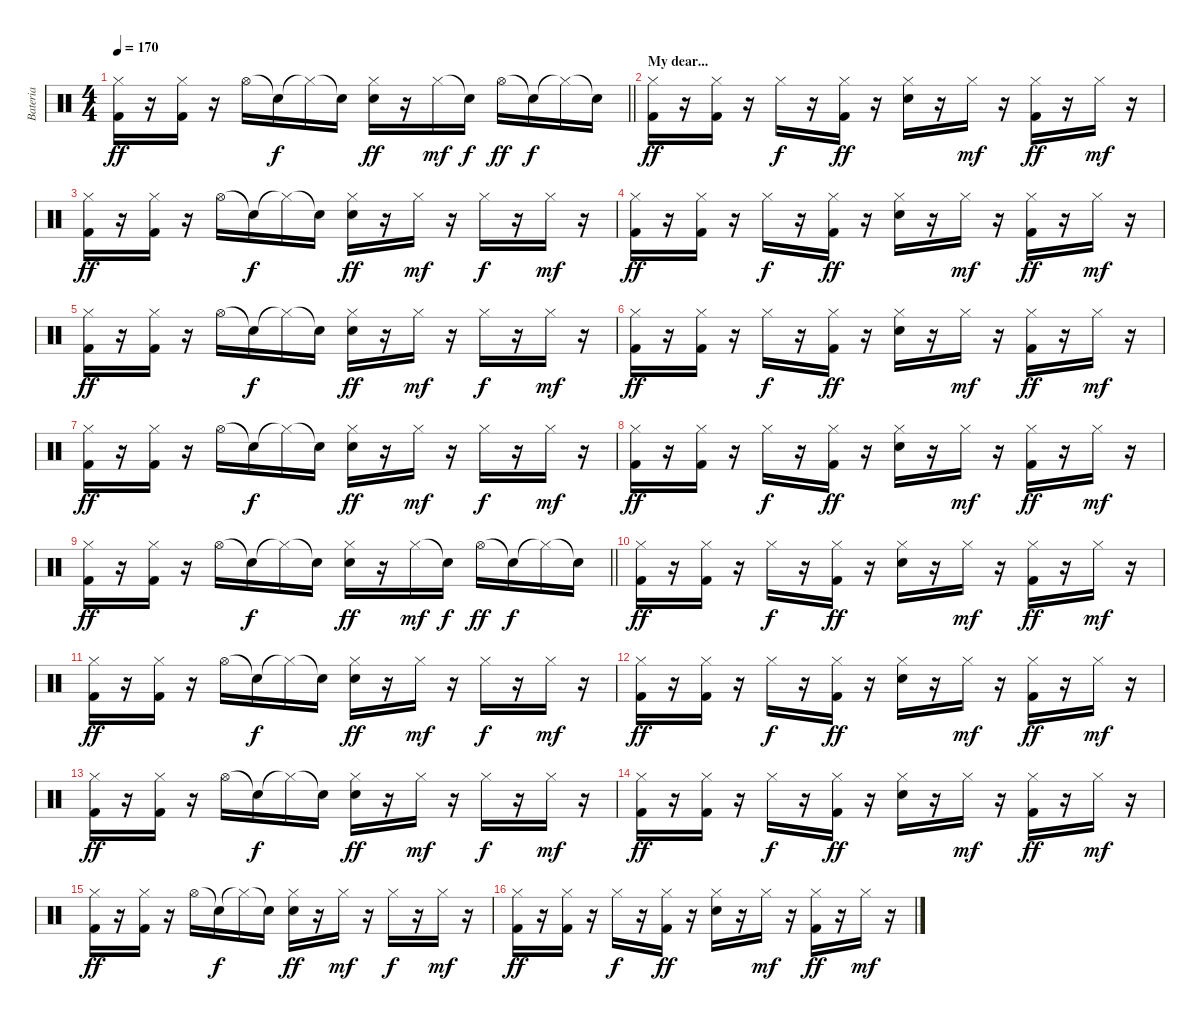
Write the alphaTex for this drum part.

\track ("Bateria" "Bateria") {instrument percussion}
\staff {score}
\articulation defaults
\ts (4 4)
\tempo 170
\clef neutral
\barLineRight lightlight
\ks c
("Hi-Hat (closed)" "Kick (hit) 2").16{dy ff} r.16 ("Hi-Hat (closed)" "Kick (hit) 2").16 r.16 "Hi-Hat (open)".16 "Snare (hit)"{t}.16{dy f} "Hi-Hat (closed)"{t}.16 "Snare (hit)"{t}.16 ("Hi-Hat (closed)" "Electric Snare (hit)").16{dy ff} r.16 "Hi-Hat (closed)".16{dy mf} "Snare (hit)"{t}.16{dy f} "Hi-Hat (open)".16{dy ff} "Snare (hit)"{t}.16{dy f} "Hi-Hat (closed)"{t}.16 "Snare (hit)"{t}.16 |
\section ("" "My dear...")
("Hi-Hat (closed)" "Kick (hit) 2").16{dy ff} r.16 ("Hi-Hat (closed)" "Kick (hit) 2").16 r.16 "Hi-Hat (closed)".16{dy f} r.16 ("Hi-Hat (closed)" "Kick (hit) 2").16{dy ff} r.16 ("Hi-Hat (closed)" "Electric Snare (hit)").16 r.16 "Hi-Hat (closed)".16{dy mf} r.16 ("Hi-Hat (closed)" "Kick (hit) 2").16{dy ff} r.16 "Hi-Hat (closed)".16{dy mf} r.16 |
("Hi-Hat (closed)" "Kick (hit) 2").16{dy ff} r.16 ("Hi-Hat (closed)" "Kick (hit) 2").16 r.16 "Hi-Hat (open)".16 "Snare (hit)"{t}.16{dy f} "Hi-Hat (closed)"{t}.16 "Snare (hit)"{t}.16 ("Hi-Hat (closed)" "Electric Snare (hit)").16{dy ff} r.16 "Hi-Hat (closed)".16{dy mf} r.16 "Hi-Hat (closed)".16{dy f} r.16 "Hi-Hat (closed)".16{dy mf} r.16 |
("Hi-Hat (closed)" "Kick (hit) 2").16{dy ff} r.16 ("Hi-Hat (closed)" "Kick (hit) 2").16 r.16 "Hi-Hat (closed)".16{dy f} r.16 ("Hi-Hat (closed)" "Kick (hit) 2").16{dy ff} r.16 ("Hi-Hat (closed)" "Electric Snare (hit)").16 r.16 "Hi-Hat (closed)".16{dy mf} r.16 ("Hi-Hat (closed)" "Kick (hit) 2").16{dy ff} r.16 "Hi-Hat (closed)".16{dy mf} r.16 |
("Hi-Hat (closed)" "Kick (hit) 2").16{dy ff} r.16 ("Hi-Hat (closed)" "Kick (hit) 2").16 r.16 "Hi-Hat (open)".16 "Snare (hit)"{t}.16{dy f} "Hi-Hat (closed)"{t}.16 "Snare (hit)"{t}.16 ("Hi-Hat (closed)" "Electric Snare (hit)").16{dy ff} r.16 "Hi-Hat (closed)".16{dy mf} r.16 "Hi-Hat (closed)".16{dy f} r.16 "Hi-Hat (closed)".16{dy mf} r.16 |
("Hi-Hat (closed)" "Kick (hit) 2").16{dy ff} r.16 ("Hi-Hat (closed)" "Kick (hit) 2").16 r.16 "Hi-Hat (closed)".16{dy f} r.16 ("Hi-Hat (closed)" "Kick (hit) 2").16{dy ff} r.16 ("Hi-Hat (closed)" "Electric Snare (hit)").16 r.16 "Hi-Hat (closed)".16{dy mf} r.16 ("Hi-Hat (closed)" "Kick (hit) 2").16{dy ff} r.16 "Hi-Hat (closed)".16{dy mf} r.16 |
("Hi-Hat (closed)" "Kick (hit) 2").16{dy ff} r.16 ("Hi-Hat (closed)" "Kick (hit) 2").16 r.16 "Hi-Hat (open)".16 "Snare (hit)"{t}.16{dy f} "Hi-Hat (closed)"{t}.16 "Snare (hit)"{t}.16 ("Hi-Hat (closed)" "Electric Snare (hit)").16{dy ff} r.16 "Hi-Hat (closed)".16{dy mf} r.16 "Hi-Hat (closed)".16{dy f} r.16 "Hi-Hat (closed)".16{dy mf} r.16 |
("Hi-Hat (closed)" "Kick (hit) 2").16{dy ff} r.16 ("Hi-Hat (closed)" "Kick (hit) 2").16 r.16 "Hi-Hat (closed)".16{dy f} r.16 ("Hi-Hat (closed)" "Kick (hit) 2").16{dy ff} r.16 ("Hi-Hat (closed)" "Electric Snare (hit)").16 r.16 "Hi-Hat (closed)".16{dy mf} r.16 ("Hi-Hat (closed)" "Kick (hit) 2").16{dy ff} r.16 "Hi-Hat (closed)".16{dy mf} r.16 |
\barLineRight lightlight
("Hi-Hat (closed)" "Kick (hit) 2").16{dy ff} r.16 ("Hi-Hat (closed)" "Kick (hit) 2").16 r.16 "Hi-Hat (open)".16 "Snare (hit)"{t}.16{dy f} "Hi-Hat (closed)"{t}.16 "Snare (hit)"{t}.16 ("Hi-Hat (closed)" "Electric Snare (hit)").16{dy ff} r.16 "Hi-Hat (closed)".16{dy mf} "Snare (hit)"{t}.16{dy f} "Hi-Hat (open)".16{dy ff} "Snare (hit)"{t}.16{dy f} "Hi-Hat (closed)"{t}.16 "Snare (hit)"{t}.16 |
("Hi-Hat (closed)" "Kick (hit) 2").16{dy ff} r.16 ("Hi-Hat (closed)" "Kick (hit) 2").16 r.16 "Hi-Hat (closed)".16{dy f} r.16 ("Hi-Hat (closed)" "Kick (hit) 2").16{dy ff} r.16 ("Hi-Hat (closed)" "Electric Snare (hit)").16 r.16 "Hi-Hat (closed)".16{dy mf} r.16 ("Hi-Hat (closed)" "Kick (hit) 2").16{dy ff} r.16 "Hi-Hat (closed)".16{dy mf} r.16 |
("Hi-Hat (closed)" "Kick (hit) 2").16{dy ff} r.16 ("Hi-Hat (closed)" "Kick (hit) 2").16 r.16 "Hi-Hat (open)".16 "Snare (hit)"{t}.16{dy f} "Hi-Hat (closed)"{t}.16 "Snare (hit)"{t}.16 ("Hi-Hat (closed)" "Electric Snare (hit)").16{dy ff} r.16 "Hi-Hat (closed)".16{dy mf} r.16 "Hi-Hat (closed)".16{dy f} r.16 "Hi-Hat (closed)".16{dy mf} r.16 |
("Hi-Hat (closed)" "Kick (hit) 2").16{dy ff} r.16 ("Hi-Hat (closed)" "Kick (hit) 2").16 r.16 "Hi-Hat (closed)".16{dy f} r.16 ("Hi-Hat (closed)" "Kick (hit) 2").16{dy ff} r.16 ("Hi-Hat (closed)" "Electric Snare (hit)").16 r.16 "Hi-Hat (closed)".16{dy mf} r.16 ("Hi-Hat (closed)" "Kick (hit) 2").16{dy ff} r.16 "Hi-Hat (closed)".16{dy mf} r.16 |
("Hi-Hat (closed)" "Kick (hit) 2").16{dy ff} r.16 ("Hi-Hat (closed)" "Kick (hit) 2").16 r.16 "Hi-Hat (open)".16 "Snare (hit)"{t}.16{dy f} "Hi-Hat (closed)"{t}.16 "Snare (hit)"{t}.16 ("Hi-Hat (closed)" "Electric Snare (hit)").16{dy ff} r.16 "Hi-Hat (closed)".16{dy mf} r.16 "Hi-Hat (closed)".16{dy f} r.16 "Hi-Hat (closed)".16{dy mf} r.16 |
("Hi-Hat (closed)" "Kick (hit) 2").16{dy ff} r.16 ("Hi-Hat (closed)" "Kick (hit) 2").16 r.16 "Hi-Hat (closed)".16{dy f} r.16 ("Hi-Hat (closed)" "Kick (hit) 2").16{dy ff} r.16 ("Hi-Hat (closed)" "Electric Snare (hit)").16 r.16 "Hi-Hat (closed)".16{dy mf} r.16 ("Hi-Hat (closed)" "Kick (hit) 2").16{dy ff} r.16 "Hi-Hat (closed)".16{dy mf} r.16 |
("Hi-Hat (closed)" "Kick (hit) 2").16{dy ff} r.16 ("Hi-Hat (closed)" "Kick (hit) 2").16 r.16 "Hi-Hat (open)".16 "Snare (hit)"{t}.16{dy f} "Hi-Hat (closed)"{t}.16 "Snare (hit)"{t}.16 ("Hi-Hat (closed)" "Electric Snare (hit)").16{dy ff} r.16 "Hi-Hat (closed)".16{dy mf} r.16 "Hi-Hat (closed)".16{dy f} r.16 "Hi-Hat (closed)".16{dy mf} r.16 |
("Hi-Hat (closed)" "Kick (hit) 2").16{dy ff} r.16 ("Hi-Hat (closed)" "Kick (hit) 2").16 r.16 "Hi-Hat (closed)".16{dy f} r.16 ("Hi-Hat (closed)" "Kick (hit) 2").16{dy ff} r.16 ("Hi-Hat (closed)" "Electric Snare (hit)").16 r.16 "Hi-Hat (closed)".16{dy mf} r.16 ("Hi-Hat (closed)" "Kick (hit) 2").16{dy ff} r.16 "Hi-Hat (closed)".16{dy mf} r.16
